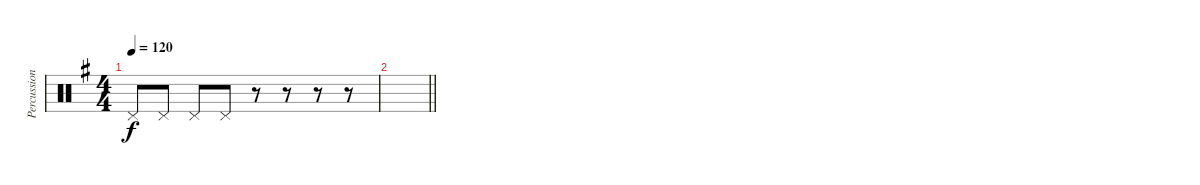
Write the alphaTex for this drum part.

\track ("Percussion" "Percussion") {instrument percussion}
\staff {score}
\articulation defaults
\ts (4 4)
\tempo 120
\clef neutral
\ks eminor "Pedal Hi-Hat (hit)".8{dy f} "Pedal Hi-Hat (hit)".8 "Pedal Hi-Hat (hit)".8 "Pedal Hi-Hat (hit)".8
r.8 r.8 r.8 r.8 |
\barLineRight lightlight
